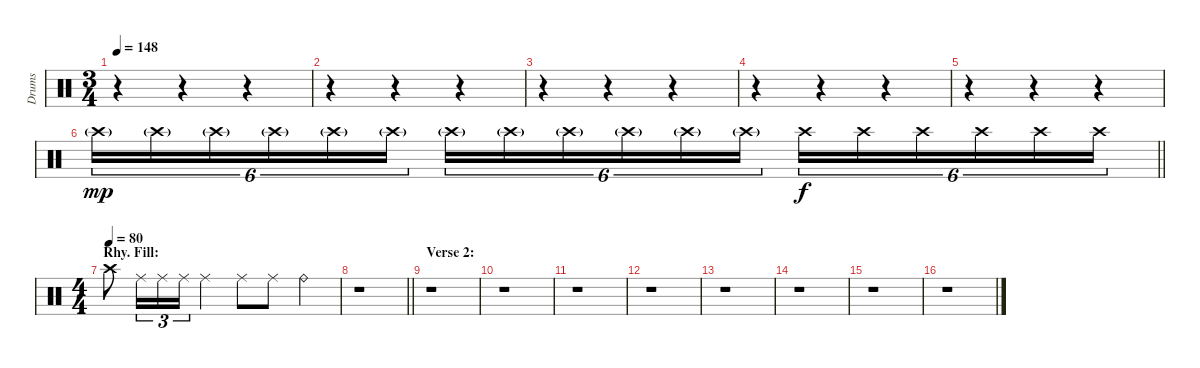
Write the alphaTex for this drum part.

\track ("Drums" "Drums") {instrument percussion}
\staff {score}
\articulation defaults
\ts (3 4)
\tempo 148
\clef neutral
\ks c
r.4{dy mp} r.4 r.4 |
r.4 r.4 r.4 |
r.4 r.4 r.4 |
r.4 r.4 r.4 |
r.4 r.4 r.4 |
\barLineRight lightlight "Crash high (hit)"{g}.16{tu (6 4)} "Crash high (hit)"{g}.16{tu (6 4)} "Crash high (hit)"{g}.16{tu (6 4)} "Crash high (hit)"{g}.16{tu (6 4)} "Crash high (hit)"{g}.16{tu (6 4)} "Crash high (hit)"{g}.16{tu (6 4)} "Crash high (hit)"{g}.16{tu (6 4)} "Crash high (hit)"{g}.16{tu (6 4)} "Crash high (hit)"{g}.16{tu (6 4)} "Crash high (hit)"{g}.16{tu (6 4)} "Crash high (hit)"{g}.16{tu (6 4)} "Crash high (hit)"{g}.16{tu (6 4)} "Crash high (hit)".16{tu (6 4) dy f} "Crash high (hit)".16{tu (6 4)} "Crash high (hit)".16{tu (6 4)} "Crash high (hit)".16{tu (6 4)} "Crash high (hit)".16{tu (6 4)} "Crash high (hit)".16{tu (6 4)}
|
\ts (4 4)
\section ("" "Rhy. Fill:")
\tempo (80)
"Crash high (hit)".8 "Ride (middle)".16{tu (3 2)} "Ride (middle)".16{tu (3 2)} "Ride (middle)".16{tu (3 2)} "Ride (middle)".4 "Ride (middle)".8 "Ride (middle)".8 "Ride (bell)".4 |
\barLineRight lightlight
r.1 |
\section ("" "Verse 2:")
r.1 |
r.1 |
r.1 |
r.1 |
r.1 |
r.1 |
r.1 |
r.1
